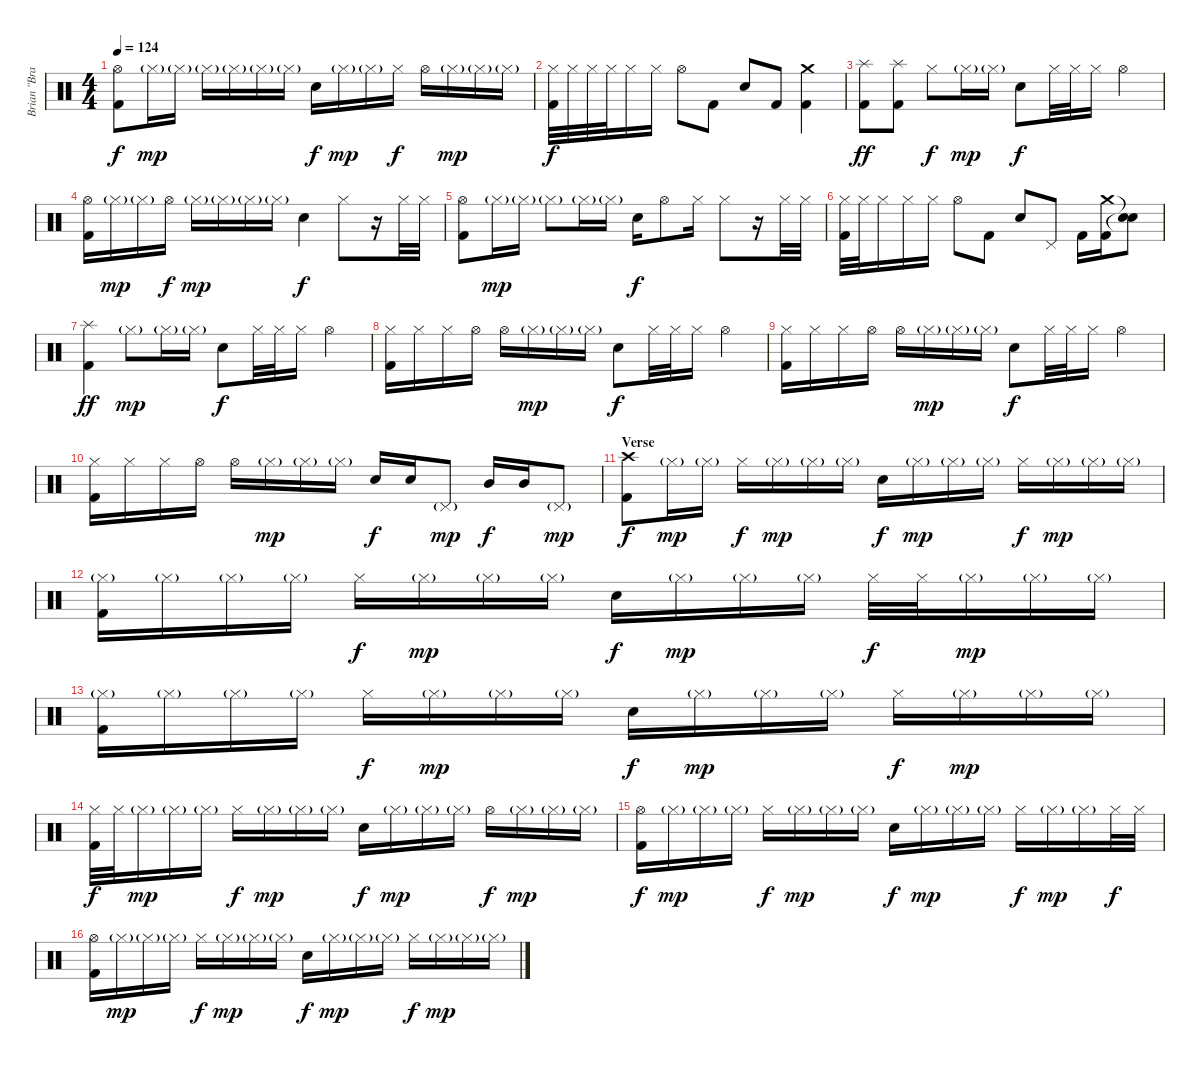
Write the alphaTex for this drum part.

\track ("Brian \"Brain\" Mantia / Drums" "Brian \"Bra") {instrument percussion}
\staff {score}
\articulation defaults
\ts (4 4)
\tempo 124
\clef neutral
\ks c
("Hi-Hat (open)" "Kick (hit) 2").8{dy f} "Hi-Hat (closed)"{g}.16{dy mp} "Hi-Hat (closed)"{g}.16 "Hi-Hat (closed)"{g}.16 "Hi-Hat (closed)"{g}.16 "Hi-Hat (closed)"{g}.16 "Hi-Hat (closed)"{g}.16 "Electric Snare (hit)".16{dy f} "Hi-Hat (closed)"{g}.16{dy mp} "Hi-Hat (closed)"{g}.16 "Hi-Hat (closed)".16{dy f} "Hi-Hat (open)".16 "Hi-Hat (closed)"{g}.16{dy mp} "Hi-Hat (closed)"{g}.16 "Hi-Hat (closed)"{g}.16 |
("Hi-Hat (closed)" "Kick (hit) 2").32{dy f} "Hi-Hat (closed)".32 "Hi-Hat (closed)".32 "Hi-Hat (closed)".32 "Hi-Hat (closed)".16 "Hi-Hat (closed)".16 "Hi-Hat (open)".8 "Kick (hit) 2".8 "Electric Snare (hit)".8 "Kick (hit) 2".8 ("Crash medium (hit)" "Kick (hit) 2").4 |
("Splash (hit)" "Kick (hit) 2").8{dy ff} ("Splash (hit)" "Kick (hit) 2").8 "Hi-Hat (closed)".8{dy f} "Hi-Hat (closed)"{g}.16{dy mp} "Hi-Hat (closed)"{g}.16 "Electric Snare (hit)".8{dy f} "Hi-Hat (closed)".32 "Hi-Hat (closed)".32 "Hi-Hat (closed)".16 "Hi-Hat (open)".4 |
("Hi-Hat (open)" "Kick (hit) 2").16 "Hi-Hat (closed)"{g}.16{dy mp} "Hi-Hat (closed)"{g}.16 "Hi-Hat (open)".16{dy f} "Hi-Hat (closed)"{g}.16{dy mp} "Hi-Hat (closed)"{g}.16 "Hi-Hat (closed)"{g}.16 "Hi-Hat (closed)"{g}.16 "Electric Snare (hit)".4{dy f} "Hi-Hat (closed)".8 r.16 "Hi-Hat (closed)".32 "Hi-Hat (closed)".32 |
("Hi-Hat (open)" "Kick (hit) 2").8 "Hi-Hat (closed)"{g}.16{dy mp} "Hi-Hat (closed)"{g}.16 "Hi-Hat (closed)"{g}.8 "Hi-Hat (closed)"{g}.16 "Hi-Hat (closed)"{g}.16 "Electric Snare (hit)".16{dy f} "Hi-Hat (open)".8 "Hi-Hat (closed)".16 "Hi-Hat (closed)".8 r.16 "Hi-Hat (closed)".32 "Hi-Hat (closed)".32 |
("Hi-Hat (closed)" "Kick (hit) 2").32 "Hi-Hat (closed)".32 "Hi-Hat (closed)".16 "Hi-Hat (closed)".16 "Hi-Hat (closed)".16 "Hi-Hat (open)".8 "Kick (hit) 2".8 "Electric Snare (hit)".8 "Pedal Hi-Hat (hit)".8 "Kick (hit) 2".16 ("Crash medium (hit)" "Kick (hit) 2").16 ("Snare (hit)"{t} "Snare (hit)"{t}).8 |
("Splash (hit)" "Kick (hit) 2").4{dy ff} "Hi-Hat (closed)"{g}.8{dy mp} "Hi-Hat (closed)"{g}.16 "Hi-Hat (closed)"{g}.16 "Electric Snare (hit)".8{dy f} "Hi-Hat (closed)".32 "Hi-Hat (closed)".32 "Hi-Hat (closed)".16 "Hi-Hat (open)".4 |
("Hi-Hat (closed)" "Kick (hit) 2").16 "Hi-Hat (closed)".16 "Hi-Hat (closed)".16 "Hi-Hat (open)".16 "Hi-Hat (open)".16 "Hi-Hat (closed)"{g}.16{dy mp} "Hi-Hat (closed)"{g}.16 "Hi-Hat (closed)"{g}.16 "Electric Snare (hit)".8{dy f} "Hi-Hat (closed)".32 "Hi-Hat (closed)".32 "Hi-Hat (closed)".16 "Hi-Hat (open)".4 |
("Hi-Hat (closed)" "Kick (hit) 2").16 "Hi-Hat (closed)".16 "Hi-Hat (closed)".16 "Hi-Hat (open)".16 "Hi-Hat (open)".16 "Hi-Hat (closed)"{g}.16{dy mp} "Hi-Hat (closed)"{g}.16 "Hi-Hat (closed)"{g}.16 "Electric Snare (hit)".8{dy f} "Hi-Hat (closed)".32 "Hi-Hat (closed)".32 "Hi-Hat (closed)".16 "Hi-Hat (open)".4 |
("Hi-Hat (closed)" "Kick (hit) 2").16 "Hi-Hat (closed)".16 "Hi-Hat (closed)".16 "Hi-Hat (open)".16 "Hi-Hat (open)".16 "Hi-Hat (closed)"{g}.16{dy mp} "Hi-Hat (closed)"{g}.16 "Hi-Hat (closed)"{g}.16 "Electric Snare (hit)".16{dy f} "Electric Snare (hit)".16 "Pedal Hi-Hat (hit)"{g}.8{dy mp} "Mid Tom (hit)".16{dy f} "Mid Tom (hit)".16 "Pedal Hi-Hat (hit)"{g}.8{dy mp} |
\section ("" "Verse")
("Crash high (hit)" "Kick (hit) 2").8{dy f} "Hi-Hat (closed)"{g}.16{dy mp} "Hi-Hat (closed)"{g}.16 "Hi-Hat (closed)".16{dy f} "Hi-Hat (closed)"{g}.16{dy mp} "Hi-Hat (closed)"{g}.16 "Hi-Hat (closed)"{g}.16 "Electric Snare (hit)".16{dy f} "Hi-Hat (closed)"{g}.16{dy mp} "Hi-Hat (closed)"{g}.16 "Hi-Hat (closed)"{g}.16 "Hi-Hat (closed)".16{dy f} "Hi-Hat (closed)"{g}.16{dy mp} "Hi-Hat (closed)"{g}.16 "Hi-Hat (closed)"{g}.16 |
("Hi-Hat (closed)"{g} "Kick (hit) 2").16 "Hi-Hat (closed)"{g}.16 "Hi-Hat (closed)"{g}.16 "Hi-Hat (closed)"{g}.16 "Hi-Hat (closed)".16{dy f} "Hi-Hat (closed)"{g}.16{dy mp} "Hi-Hat (closed)"{g}.16 "Hi-Hat (closed)"{g}.16 "Electric Snare (hit)".16{dy f} "Hi-Hat (closed)"{g}.16{dy mp} "Hi-Hat (closed)"{g}.16 "Hi-Hat (closed)"{g}.16 "Hi-Hat (closed)".32{dy f} "Hi-Hat (closed)".32 "Hi-Hat (closed)"{g}.16{dy mp} "Hi-Hat (closed)"{g}.16 "Hi-Hat (closed)"{g}.16 |
("Hi-Hat (closed)"{g} "Kick (hit) 2").16 "Hi-Hat (closed)"{g}.16 "Hi-Hat (closed)"{g}.16 "Hi-Hat (closed)"{g}.16 "Hi-Hat (closed)".16{dy f} "Hi-Hat (closed)"{g}.16{dy mp} "Hi-Hat (closed)"{g}.16 "Hi-Hat (closed)"{g}.16 "Electric Snare (hit)".16{dy f} "Hi-Hat (closed)"{g}.16{dy mp} "Hi-Hat (closed)"{g}.16 "Hi-Hat (closed)"{g}.16 "Hi-Hat (closed)".16{dy f} "Hi-Hat (closed)"{g}.16{dy mp} "Hi-Hat (closed)"{g}.16 "Hi-Hat (closed)"{g}.16 |
("Hi-Hat (closed)" "Kick (hit) 2").32{dy f} "Hi-Hat (closed)".32 "Hi-Hat (closed)"{g}.16{dy mp} "Hi-Hat (closed)"{g}.16 "Hi-Hat (closed)"{g}.16 "Hi-Hat (closed)".16{dy f} "Hi-Hat (closed)"{g}.16{dy mp} "Hi-Hat (closed)"{g}.16 "Hi-Hat (closed)"{g}.16 "Electric Snare (hit)".16{dy f} "Hi-Hat (closed)"{g}.16{dy mp} "Hi-Hat (closed)"{g}.16 "Hi-Hat (closed)"{g}.16 "Hi-Hat (open)".16{dy f} "Hi-Hat (closed)"{g}.16{dy mp} "Hi-Hat (closed)"{g}.16 "Hi-Hat (closed)"{g}.16 |
("Hi-Hat (open)" "Kick (hit) 2").16{dy f} "Hi-Hat (closed)"{g}.16{dy mp} "Hi-Hat (closed)"{g}.16 "Hi-Hat (closed)"{g}.16 "Hi-Hat (closed)".16{dy f} "Hi-Hat (closed)"{g}.16{dy mp} "Hi-Hat (closed)"{g}.16 "Hi-Hat (closed)"{g}.16 "Electric Snare (hit)".16{dy f} "Hi-Hat (closed)"{g}.16{dy mp} "Hi-Hat (closed)"{g}.16 "Hi-Hat (closed)"{g}.16 "Hi-Hat (closed)".16{dy f} "Hi-Hat (closed)"{g}.16{dy mp} "Hi-Hat (closed)"{g}.16 "Hi-Hat (closed)".32{dy f} "Hi-Hat (closed)".32 |
("Hi-Hat (open)" "Kick (hit) 2").16 "Hi-Hat (closed)"{g}.16{dy mp} "Hi-Hat (closed)"{g}.16 "Hi-Hat (closed)"{g}.16 "Hi-Hat (closed)".16{dy f} "Hi-Hat (closed)"{g}.16{dy mp} "Hi-Hat (closed)"{g}.16 "Hi-Hat (closed)"{g}.16 "Electric Snare (hit)".16{dy f} "Hi-Hat (closed)"{g}.16{dy mp} "Hi-Hat (closed)"{g}.16 "Hi-Hat (closed)"{g}.16 "Hi-Hat (closed)".16{dy f} "Hi-Hat (closed)"{g}.16{dy mp} "Hi-Hat (closed)"{g}.16 "Hi-Hat (closed)"{g}.16
